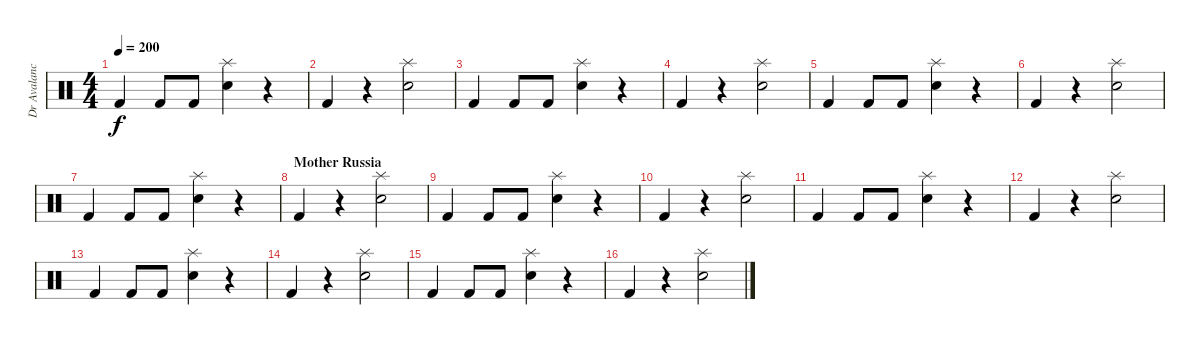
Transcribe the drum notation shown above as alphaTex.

\track ("Dr Avalanche" "Dr Avalanc") {instrument percussion}
\staff {score}
\articulation defaults
\ts (4 4)
\tempo 200
\clef neutral
\ks c "Kick (hit) 2".4{dy f} "Kick (hit) 2".8 "Kick (hit) 2".8
("Snare (hit) 2" "Splash (hit)").4 r.4 |
"Kick (hit) 2".4 r.4 ("Snare (hit) 2" "Splash (hit)").2 |
"Kick (hit) 2".4 "Kick (hit) 2".8 "Kick (hit) 2".8 ("Snare (hit) 2" "Splash (hit)").4 r.4 |
"Kick (hit) 2".4 r.4 ("Snare (hit) 2" "Splash (hit)").2 |
"Kick (hit) 2".4 "Kick (hit) 2".8 "Kick (hit) 2".8 ("Snare (hit) 2" "Splash (hit)").4 r.4 |
"Kick (hit) 2".4 r.4 ("Snare (hit) 2" "Splash (hit)").2 |
"Kick (hit) 2".4 "Kick (hit) 2".8 "Kick (hit) 2".8 ("Snare (hit) 2" "Splash (hit)").4 r.4 |
\section ("" "Mother Russia")
"Kick (hit) 2".4 r.4 ("Snare (hit) 2" "Splash (hit)").2 |
"Kick (hit) 2".4 "Kick (hit) 2".8 "Kick (hit) 2".8 ("Snare (hit) 2" "Splash (hit)").4 r.4 |
"Kick (hit) 2".4 r.4 ("Snare (hit) 2" "Splash (hit)").2 |
"Kick (hit) 2".4 "Kick (hit) 2".8 "Kick (hit) 2".8 ("Snare (hit) 2" "Splash (hit)").4 r.4 |
"Kick (hit) 2".4 r.4 ("Snare (hit) 2" "Splash (hit)").2 |
"Kick (hit) 2".4 "Kick (hit) 2".8 "Kick (hit) 2".8 ("Snare (hit) 2" "Splash (hit)").4 r.4 |
"Kick (hit) 2".4 r.4 ("Snare (hit) 2" "Splash (hit)").2 |
"Kick (hit) 2".4 "Kick (hit) 2".8 "Kick (hit) 2".8 ("Snare (hit) 2" "Splash (hit)").4 r.4 |
"Kick (hit) 2".4 r.4 ("Snare (hit) 2" "Splash (hit)").2
